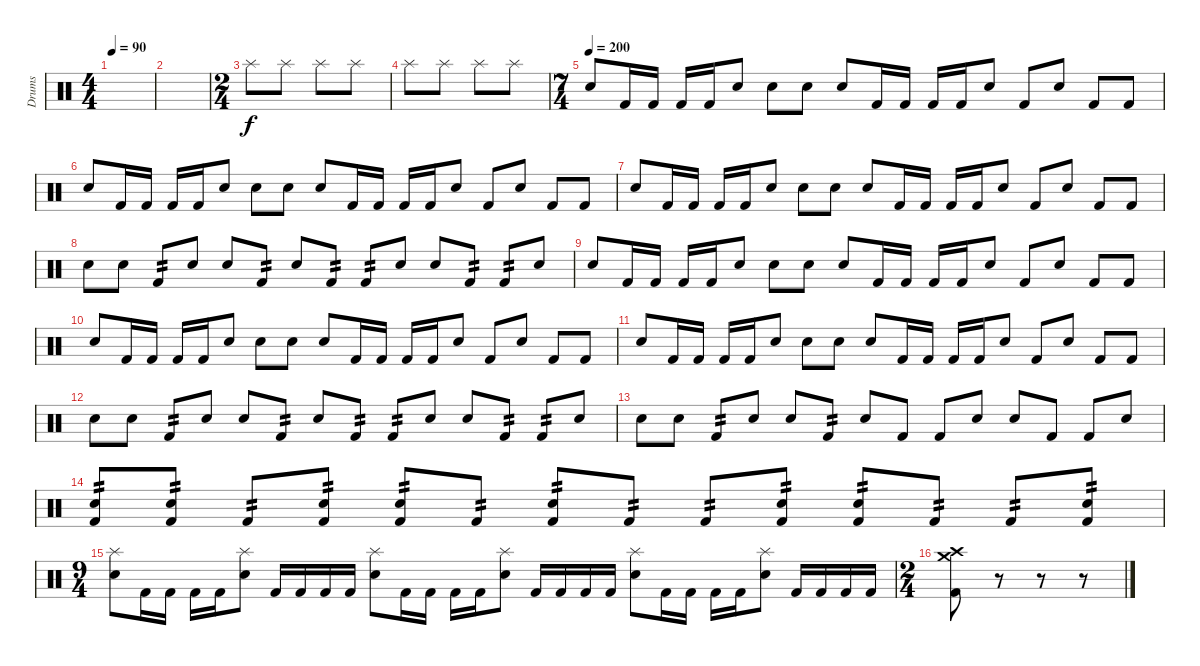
\track ("Drums" "Drums") {instrument percussion}
\staff {score}
\articulation defaults
\ts (4 4)
\tempo 90
\clef neutral
\ks c
|
|
\ts (2 4)
"Splash (hit)".8 "Splash (hit)".8 "Splash (hit)".8 "Splash (hit)".8 |
"Splash (hit)".8 "Splash (hit)".8 "Splash (hit)".8 "Splash (hit)".8 |
\ts (7 4)
\tempo (200)
"Snare (hit) 2".8 "Kick (hit) 2".16 "Kick (hit) 2".16 "Kick (hit) 2".16 "Kick (hit) 2".16 "Snare (hit) 2".8 "Snare (hit) 2".8 "Snare (hit) 2".8 "Snare (hit) 2".8 "Kick (hit) 2".16 "Kick (hit) 2".16 "Kick (hit) 2".16 "Kick (hit) 2".16 "Snare (hit) 2".8 "Kick (hit) 2".8 "Snare (hit) 2".8 "Kick (hit) 2".8 "Kick (hit) 2".8 |
"Snare (hit) 2".8 "Kick (hit) 2".16 "Kick (hit) 2".16 "Kick (hit) 2".16 "Kick (hit) 2".16 "Snare (hit) 2".8 "Snare (hit) 2".8 "Snare (hit) 2".8 "Snare (hit) 2".8 "Kick (hit) 2".16 "Kick (hit) 2".16 "Kick (hit) 2".16 "Kick (hit) 2".16 "Snare (hit) 2".8 "Kick (hit) 2".8 "Snare (hit) 2".8 "Kick (hit) 2".8 "Kick (hit) 2".8 |
"Snare (hit) 2".8 "Kick (hit) 2".16 "Kick (hit) 2".16 "Kick (hit) 2".16 "Kick (hit) 2".16 "Snare (hit) 2".8 "Snare (hit) 2".8 "Snare (hit) 2".8 "Snare (hit) 2".8 "Kick (hit) 2".16 "Kick (hit) 2".16 "Kick (hit) 2".16 "Kick (hit) 2".16 "Snare (hit) 2".8 "Kick (hit) 2".8 "Snare (hit) 2".8 "Kick (hit) 2".8 "Kick (hit) 2".8 |
"Snare (hit) 2".8 "Snare (hit) 2".8 "Kick (hit) 2".8{tp 2} "Snare (hit) 2".8 "Snare (hit) 2".8 "Kick (hit) 2".8{tp 2} "Snare (hit) 2".8 "Kick (hit) 2".8{tp 2} "Kick (hit) 2".8{tp 2} "Snare (hit) 2".8 "Snare (hit) 2".8 "Kick (hit) 2".8{tp 2} "Kick (hit) 2".8{tp 2} "Snare (hit) 2".8 |
"Snare (hit) 2".8 "Kick (hit) 2".16 "Kick (hit) 2".16 "Kick (hit) 2".16 "Kick (hit) 2".16 "Snare (hit) 2".8 "Snare (hit) 2".8 "Snare (hit) 2".8 "Snare (hit) 2".8 "Kick (hit) 2".16 "Kick (hit) 2".16 "Kick (hit) 2".16 "Kick (hit) 2".16 "Snare (hit) 2".8 "Kick (hit) 2".8 "Snare (hit) 2".8 "Kick (hit) 2".8 "Kick (hit) 2".8 |
"Snare (hit) 2".8 "Kick (hit) 2".16 "Kick (hit) 2".16 "Kick (hit) 2".16 "Kick (hit) 2".16 "Snare (hit) 2".8 "Snare (hit) 2".8 "Snare (hit) 2".8 "Snare (hit) 2".8 "Kick (hit) 2".16 "Kick (hit) 2".16 "Kick (hit) 2".16 "Kick (hit) 2".16 "Snare (hit) 2".8 "Kick (hit) 2".8 "Snare (hit) 2".8 "Kick (hit) 2".8 "Kick (hit) 2".8 |
"Snare (hit) 2".8 "Kick (hit) 2".16 "Kick (hit) 2".16 "Kick (hit) 2".16 "Kick (hit) 2".16 "Snare (hit) 2".8 "Snare (hit) 2".8 "Snare (hit) 2".8 "Snare (hit) 2".8 "Kick (hit) 2".16 "Kick (hit) 2".16 "Kick (hit) 2".16 "Kick (hit) 2".16 "Snare (hit) 2".8 "Kick (hit) 2".8 "Snare (hit) 2".8 "Kick (hit) 2".8 "Kick (hit) 2".8 |
"Snare (hit) 2".8 "Snare (hit) 2".8 "Kick (hit) 2".8{tp 2} "Snare (hit) 2".8 "Snare (hit) 2".8 "Kick (hit) 2".8{tp 2} "Snare (hit) 2".8 "Kick (hit) 2".8{tp 2} "Kick (hit) 2".8{tp 2} "Snare (hit) 2".8 "Snare (hit) 2".8 "Kick (hit) 2".8{tp 2} "Kick (hit) 2".8{tp 2} "Snare (hit) 2".8 |
"Snare (hit) 2".8 "Snare (hit) 2".8 "Kick (hit) 2".8{tp 2} "Snare (hit) 2".8 "Snare (hit) 2".8 "Kick (hit) 2".8{tp 2} "Snare (hit) 2".8 "Kick (hit) 2".8 "Kick (hit) 2".8 "Snare (hit) 2".8 "Snare (hit) 2".8 "Kick (hit) 2".8 "Kick (hit) 2".8 "Snare (hit) 2".8 |
("Snare (hit) 2" "Kick (hit) 2").8{tp 2} ("Snare (hit) 2" "Kick (hit) 2").8{tp 2} "Kick (hit) 2".8{tp 2} ("Snare (hit) 2" "Kick (hit) 2").8{tp 2} ("Snare (hit) 2" "Kick (hit) 2").8{tp 2} "Kick (hit) 2".8{tp 2} ("Snare (hit) 2" "Kick (hit) 2").8{tp 2} "Kick (hit) 2".8{tp 2} "Kick (hit) 2".8{tp 2} ("Snare (hit) 2" "Kick (hit) 2").8{tp 2} ("Snare (hit) 2" "Kick (hit) 2").8{tp 2} "Kick (hit) 2".8{tp 2} "Kick (hit) 2".8{tp 2} ("Snare (hit) 2" "Kick (hit) 2").8{tp 2} |
\ts (9 4)
("Splash (hit)" "Snare (hit) 2").8 "Kick (hit) 2".16 "Kick (hit) 2".16 "Kick (hit) 2".16 "Kick (hit) 2".16 ("Splash (hit)" "Snare (hit) 2").8 "Kick (hit) 2".16 "Kick (hit) 2".16 "Kick (hit) 2".16 "Kick (hit) 2".16 ("Splash (hit)" "Snare (hit) 2").8 "Kick (hit) 2".16 "Kick (hit) 2".16 "Kick (hit) 2".16 "Kick (hit) 2".16 ("Splash (hit)" "Snare (hit) 2").8 "Kick (hit) 2".16 "Kick (hit) 2".16 "Kick (hit) 2".16 "Kick (hit) 2".16 ("Splash (hit)" "Snare (hit) 2").8 "Kick (hit) 2".16 "Kick (hit) 2".16 "Kick (hit) 2".16 "Kick (hit) 2".16 ("Splash (hit)" "Snare (hit) 2").8 "Kick (hit) 2".16 "Kick (hit) 2".16 "Kick (hit) 2".16 "Kick (hit) 2".16 |
\ts (2 4)
("Crash medium (hit)" "Crash high (hit)" "Kick (hit) 2").8 r.8 r.8 r.8
